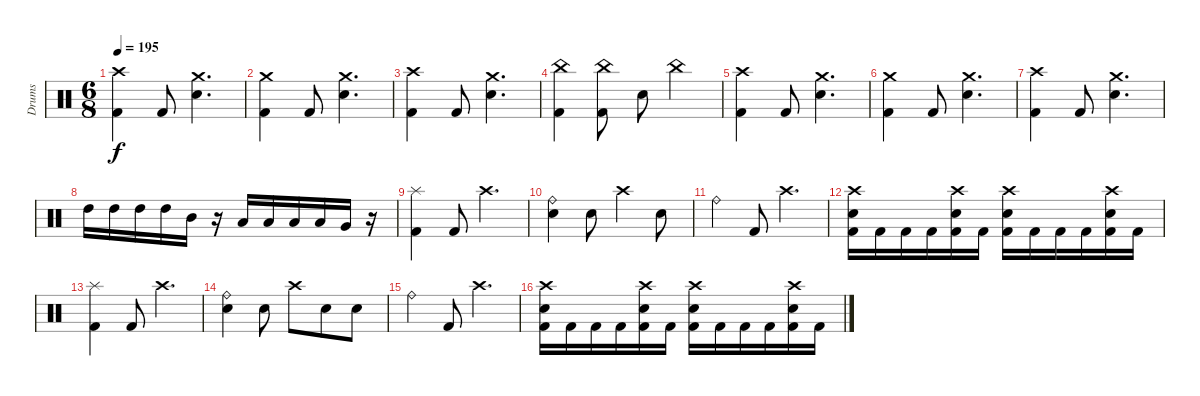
\track ("Drums" "Drums") {instrument percussion}
\staff {score}
\articulation defaults
\ts (6 8)
\tempo 195
\clef neutral
\ks c
("Crash high (hit)" "Kick (hit) 2").4{dy f} "Kick (hit) 2".8 ("Crash medium (hit)" "Electric Snare (hit)").4{d} |
("Crash medium (hit)" "Kick (hit) 2").4 "Kick (hit) 2".8 ("Crash medium (hit)" "Electric Snare (hit)").4{d} |
("Crash high (hit)" "Kick (hit) 2").4 "Kick (hit) 2".8 ("Crash medium (hit)" "Electric Snare (hit)").4{d} |
("China (hit)" "Kick (hit) 2").4 ("China (hit)" "Kick (hit) 2").8 "Electric Snare (hit)".8 "China (hit)".4 |
("Crash high (hit)" "Kick (hit) 2").4 "Kick (hit) 2".8 ("Crash medium (hit)" "Electric Snare (hit)").4{d} |
("Crash medium (hit)" "Kick (hit) 2").4 "Kick (hit) 2".8 ("Crash medium (hit)" "Electric Snare (hit)").4{d} |
("Crash high (hit)" "Kick (hit) 2").4 "Kick (hit) 2".8 ("Crash medium (hit)" "Electric Snare (hit)").4{d} |
"High Tom (hit)".16 "High Tom (hit)".16 "High Tom (hit)".16 "High Tom (hit)".16 "Mid Tom (hit)".16 r.16 "Low Tom (hit)".16 "Low Tom (hit)".16 "Low Tom (hit)".16 "Low Tom (hit)".16 "Very Low Tom (hit)".16 r.16 |
("Splash (hit)" "Kick (hit) 2").4 "Kick (hit) 2".8 "Crash high (hit)".4{d} |
("Ride (bell)" "Electric Snare (hit)").4 "Electric Snare (hit)".8 "Crash high (hit)".4 "Electric Snare (hit)".8 |
"Ride (bell)".4 "Kick (hit) 2".8 "Crash high (hit)".4{d} |
("Crash high (hit)" "Electric Snare (hit)" "Kick (hit) 2").16 "Kick (hit) 2".16 "Kick (hit) 2".16 "Kick (hit) 2".16 ("Crash high (hit)" "Electric Snare (hit)" "Kick (hit) 2").16 "Kick (hit) 2".16 ("Crash high (hit)" "Electric Snare (hit)" "Kick (hit) 2").16 "Kick (hit) 2".16 "Kick (hit) 2".16 "Kick (hit) 2".16 ("Crash high (hit)" "Electric Snare (hit)" "Kick (hit) 2").16 "Kick (hit) 2".16 |
("Splash (hit)" "Kick (hit) 2").4 "Kick (hit) 2".8 "Crash high (hit)".4{d} |
("Ride (bell)" "Electric Snare (hit)").4 "Electric Snare (hit)".8 "Crash high (hit)".8 "Electric Snare (hit)".8 "Electric Snare (hit)".8 |
"Ride (bell)".4 "Kick (hit) 2".8 "Crash high (hit)".4{d} |
("Crash high (hit)" "Electric Snare (hit)" "Kick (hit) 2").16 "Kick (hit) 2".16 "Kick (hit) 2".16 "Kick (hit) 2".16 ("Crash high (hit)" "Electric Snare (hit)" "Kick (hit) 2").16 "Kick (hit) 2".16 ("Crash high (hit)" "Electric Snare (hit)" "Kick (hit) 2").16 "Kick (hit) 2".16 "Kick (hit) 2".16 "Kick (hit) 2".16 ("Crash high (hit)" "Electric Snare (hit)" "Kick (hit) 2").16 "Kick (hit) 2".16
